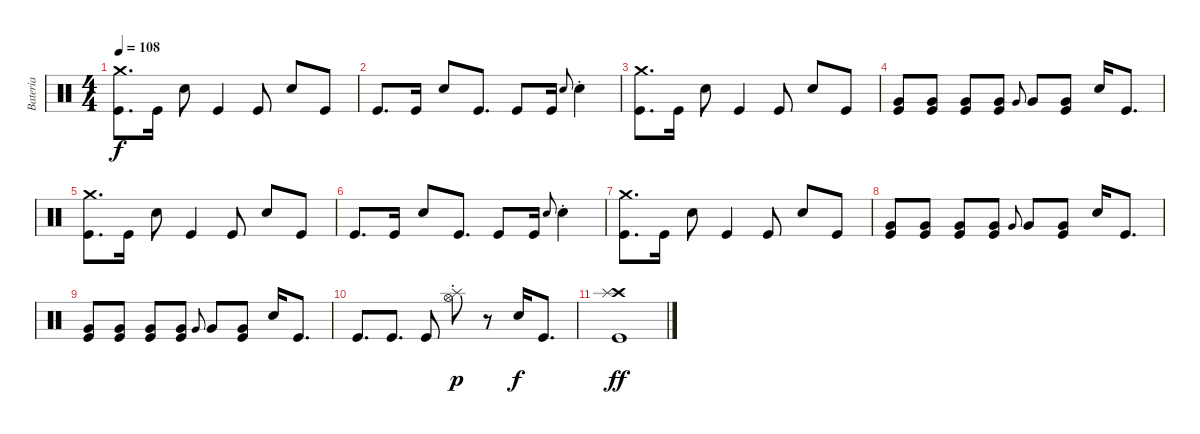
\track ("Bateria" "Bateria") {instrument percussion}
\staff {score}
\articulation defaults
\ts (4 4)
\section ("" "")
\tempo 108
\clef neutral
\ks c
("Crash medium (hit)" "Kick (hit)").8{d dy f} "Kick (hit)".16 "Snare (hit) 2".8 "Kick (hit)".4 "Kick (hit)".8 "Snare (hit) 2".8 "Kick (hit)".8 |
"Kick (hit)".8{d} "Kick (hit)".16 "Snare (hit) 2".8 "Kick (hit)".8{d} "Kick (hit)".8 "Kick (hit)".16 "Snare (hit) 2".8{gr onbeat} "Snare (hit) 2"{st}.4 |
("Crash medium (hit)" "Kick (hit)").8{d} "Kick (hit)".16 "Snare (hit) 2".8 "Kick (hit)".4 "Kick (hit)".8 "Snare (hit) 2".8 "Kick (hit)".8 |
("Very Low Tom (hit)" "Kick (hit)").8 ("Very Low Tom (hit)" "Kick (hit)").8 ("Very Low Tom (hit)" "Kick (hit)").8 ("Very Low Tom (hit)" "Kick (hit)").8 "Very Low Tom (hit)".8{gr onbeat} "Very Low Tom (hit)".8 ("Very Low Tom (hit)" "Kick (hit)").8 "Snare (hit) 2".16 "Kick (hit)".8{d} |
("Crash medium (hit)" "Kick (hit)").8{d} "Kick (hit)".16 "Snare (hit) 2".8 "Kick (hit)".4 "Kick (hit)".8 "Snare (hit) 2".8 "Kick (hit)".8 |
"Kick (hit)".8{d} "Kick (hit)".16 "Snare (hit) 2".8 "Kick (hit)".8{d} "Kick (hit)".8 "Kick (hit)".16 "Snare (hit) 2".8{gr onbeat} "Snare (hit) 2"{st}.4 |
("Crash medium (hit)" "Kick (hit)").8{d} "Kick (hit)".16 "Snare (hit) 2".8 "Kick (hit)".4 "Kick (hit)".8 "Snare (hit) 2".8 "Kick (hit)".8 |
("Very Low Tom (hit)" "Kick (hit)").8 ("Very Low Tom (hit)" "Kick (hit)").8 ("Very Low Tom (hit)" "Kick (hit)").8 ("Very Low Tom (hit)" "Kick (hit)").8 "Very Low Tom (hit)".8{gr onbeat} "Very Low Tom (hit)".8 ("Very Low Tom (hit)" "Kick (hit)").8 "Snare (hit) 2".16 "Kick (hit)".8{d} |
("Very Low Tom (hit)" "Kick (hit)").8 ("Very Low Tom (hit)" "Kick (hit)").8 ("Very Low Tom (hit)" "Kick (hit)").8 ("Very Low Tom (hit)" "Kick (hit)").8 "Very Low Tom (hit)".8{gr onbeat} "Very Low Tom (hit)".8 ("Very Low Tom (hit)" "Kick (hit)").8 "Snare (hit) 2".16 "Kick (hit)".8{d} |
"Kick (hit)".8{d} "Kick (hit)".8{d} "Kick (hit)".8 ("Hi-Hat (open)" "Splash (hit)"{st}).8{dy p} r.8 "Snare (hit) 2".16{dy f} "Kick (hit)".8{d} |
("Crash high (hit)" "Splash (hit)" "Kick (hit)").1{dy ff}
